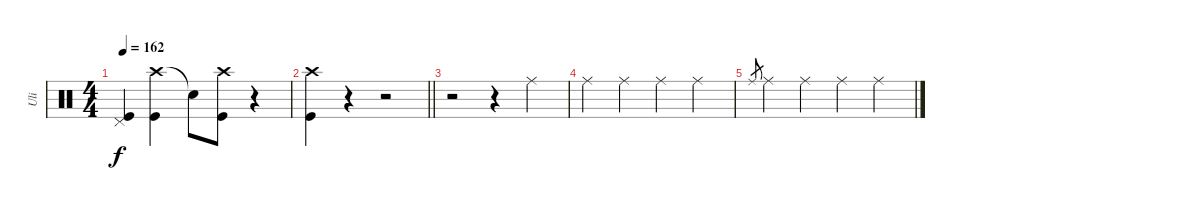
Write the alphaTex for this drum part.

\track ("Uli" "Uli") {instrument percussion}
\staff {score}
\articulation defaults
\ts (4 4)
\tempo 162
\clef neutral
\ks aminor
("Pedal Hi-Hat (hit)" "Kick (hit)").4{dy f} ("Crash high (hit)" "Kick (hit)").4 "Snare (hit)"{t}.8 ("Crash high (hit)" "Kick (hit)").8 r.4 |
\barLineRight lightlight
("Crash high (hit)" "Kick (hit)").4 r.4 r.2 |
r.2 r.4 "Ride (middle)".4 |
"Ride (middle)".4 "Ride (middle)".4 "Ride (middle)".4 "Ride (middle)".4 |
"Ride (middle)".8{gr} "Ride (middle)".4 "Ride (middle)".4 "Ride (middle)".4 "Ride (middle)".4
